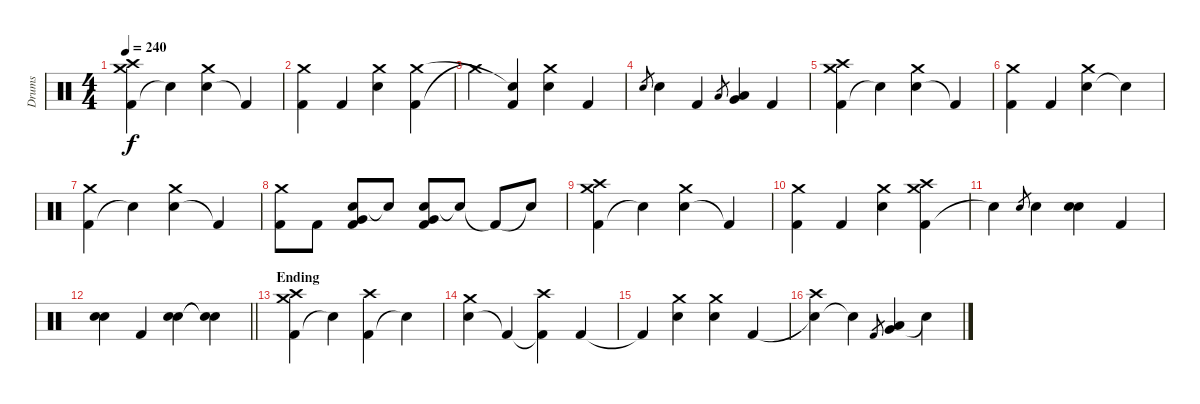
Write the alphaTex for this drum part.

\track ("Drums" "Drums") {instrument percussion}
\staff {score}
\articulation defaults
\ts (4 4)
\tempo 240
\clef neutral
\ks c
("Kick (hit) 2" "Crash medium (hit)" "Crash high (hit)").4{dy f} "Electric Snare (hit)"{t}.4 ("Electric Snare (hit)" "Crash medium (hit)").4 "Kick (hit) 2"{t}.4 |
("Kick (hit) 2" "Crash medium (hit)").4 "Kick (hit) 2".4 ("Electric Snare (hit)" "Crash medium (hit)").4 ("Kick (hit) 2" "Crash medium (hit)").4 |
"Crash medium (hit)"{t}.4 ("Kick (hit) 2" "Snare (hit)"{t}).4 ("Electric Snare (hit)" "Crash medium (hit)").4 "Kick (hit) 2".4 |
"Electric Snare (hit)".8{gr} "Electric Snare (hit)".4 "Kick (hit) 2".4 "Low Tom (hit)".8{gr} ("Low Tom (hit)" "Very Low Tom (hit)").4 "Kick (hit) 2".4 |
("Kick (hit) 2" "Crash medium (hit)" "Crash high (hit)").4 "Electric Snare (hit)"{t}.4 ("Electric Snare (hit)" "Crash medium (hit)").4 "Kick (hit) 2"{t}.4 |
("Kick (hit) 2" "Crash medium (hit)").4 "Kick (hit) 2".4 ("Electric Snare (hit)" "Crash medium (hit)").4 "Snare (hit)"{t}.4 |
("Kick (hit) 2" "Crash medium (hit)").4 "Electric Snare (hit)"{t}.4 ("Electric Snare (hit)" "Crash medium (hit)").4 "Kick (hit) 2"{t}.4 |
("Kick (hit) 2" "Crash medium (hit)").8 "Kick (hit) 2".8 ("Electric Snare (hit)" "Very Low Tom (hit)" "Kick (hit) 2").8 "Snare (hit)"{t}.8 ("Electric Snare (hit)" "Very Low Tom (hit)" "Kick (hit) 2").8 "Snare (hit)"{t}.8 "Kick (hit) 2"{t}.8 "Snare (hit)"{t}.8 |
("Kick (hit) 2" "Crash medium (hit)" "Crash high (hit)").4 "Electric Snare (hit)"{t}.4 ("Electric Snare (hit)" "Crash medium (hit)").4 "Kick (hit) 2"{t}.4 |
("Kick (hit) 2" "Crash medium (hit)").4 "Kick (hit) 2".4 ("Electric Snare (hit)" "Crash medium (hit)").4 ("Kick (hit) 2" "Crash medium (hit)" "Crash high (hit)").4 |
"Snare (hit)"{t}.4 "Electric Snare (hit)".8{gr} "Electric Snare (hit)".4 ("Electric Snare (hit)" "Electric Snare (hit)").4 "Kick (hit) 2".4 |
\barLineRight lightlight
("Electric Snare (hit)" "Electric Snare (hit)").4 "Kick (hit) 2".4 ("Electric Snare (hit)" "Electric Snare (hit)").4 ("Snare (hit)"{t} "Snare (hit)"{t}).4 |
\section ("" "Ending")
("Kick (hit) 2" "Crash medium (hit)" "Crash high (hit)").4 "Snare (hit)"{t}.4 ("Kick (hit) 2" "Crash high (hit)").4 "Snare (hit)"{t}.4 |
("Electric Snare (hit)" "Crash medium (hit)").4 "Kick (hit) 2"{t}.4 ("Kick (hit) 2"{t} "Crash high (hit)").4 "Kick (hit) 2".4 |
"Kick (hit) 2"{t}.4 ("Electric Snare (hit)" "Crash medium (hit)").4 ("Electric Snare (hit)" "Crash medium (hit)").4 "Kick (hit) 2".4 |
("Snare (hit)"{t} "Crash high (hit)").4 "Snare (hit)"{t}.4 "Kick (hit) 2".8{gr} ("Very Low Tom (hit)" "Low Tom (hit)").4 "Snare (hit)"{t}.4
